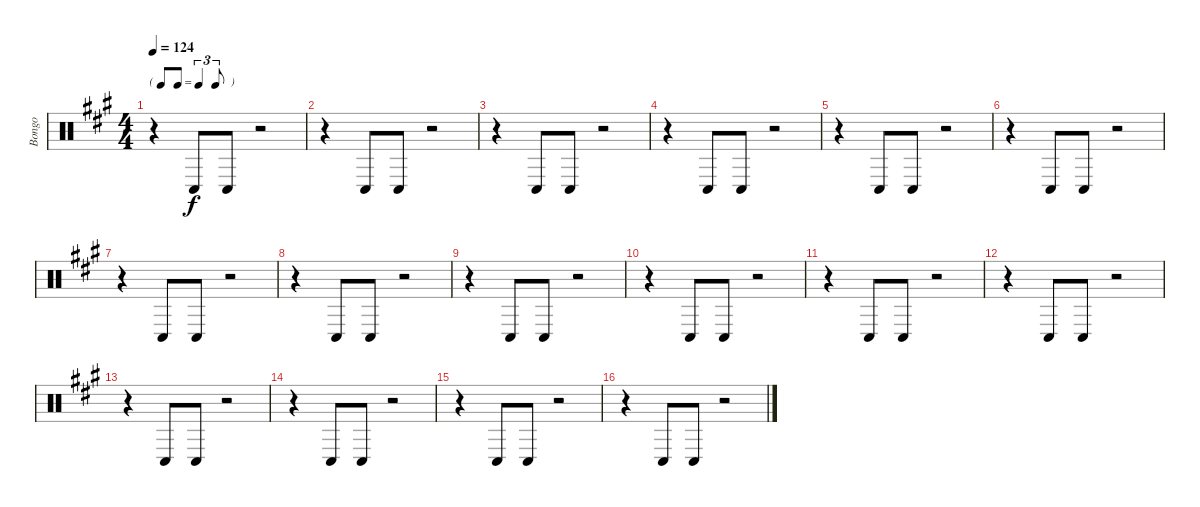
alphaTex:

\track ("Bongo" "Bongo") {instrument percussion}
\staff {score}
\articulation defaults
\ts (4 4)
\tf triplet8th
\tempo 124
\clef neutral
\ks a
r.4{dy f} "Conga low (hit)".8 "Conga low (hit)".8 r.2 |
r.4 "Conga low (hit)".8 "Conga low (hit)".8 r.2 |
r.4 "Conga low (hit)".8 "Conga low (hit)".8 r.2 |
r.4 "Conga low (hit)".8 "Conga low (hit)".8 r.2 |
r.4 "Conga low (hit)".8 "Conga low (hit)".8 r.2 |
r.4 "Conga low (hit)".8 "Conga low (hit)".8 r.2 |
r.4 "Conga low (hit)".8 "Conga low (hit)".8 r.2 |
r.4 "Conga low (hit)".8 "Conga low (hit)".8 r.2 |
r.4 "Conga low (hit)".8 "Conga low (hit)".8 r.2 |
r.4 "Conga low (hit)".8 "Conga low (hit)".8 r.2 |
r.4 "Conga low (hit)".8 "Conga low (hit)".8 r.2 |
r.4 "Conga low (hit)".8 "Conga low (hit)".8 r.2 |
r.4 "Conga low (hit)".8 "Conga low (hit)".8 r.2 |
r.4 "Conga low (hit)".8 "Conga low (hit)".8 r.2 |
r.4 "Conga low (hit)".8 "Conga low (hit)".8 r.2 |
r.4 "Conga low (hit)".8 "Conga low (hit)".8 r.2
